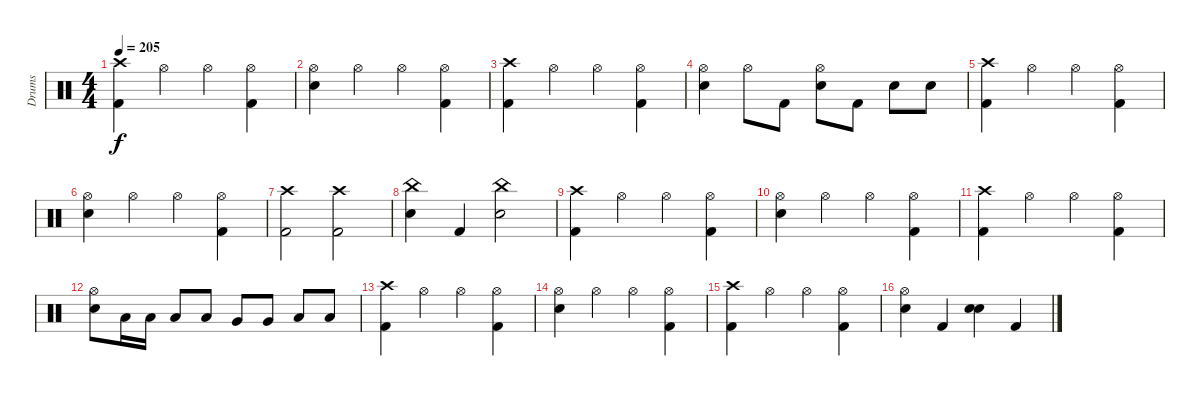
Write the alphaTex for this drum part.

\track ("Drums" "Drums") {instrument percussion}
\staff {score}
\articulation defaults
\ts (4 4)
\tempo 205
\clef neutral
\ks c
("Crash high (hit)" "Kick (hit) 2").4{dy f} "Hi-Hat (open)".4 "Hi-Hat (open)".4 ("Hi-Hat (open)" "Kick (hit) 2").4 |
("Hi-Hat (open)" "Snare (hit) 2").4 "Hi-Hat (open)".4 "Hi-Hat (open)".4 ("Hi-Hat (open)" "Kick (hit) 2").4 |
("Crash high (hit)" "Kick (hit) 2").4 "Hi-Hat (open)".4 "Hi-Hat (open)".4 ("Hi-Hat (open)" "Kick (hit) 2").4 |
("Hi-Hat (open)" "Snare (hit) 2").4 "Hi-Hat (open)".8 "Kick (hit) 2".8 ("Hi-Hat (open)" "Snare (hit) 2").8 "Kick (hit) 2".8 "Snare (hit) 2".8 "Snare (hit) 2".8 |
("Crash high (hit)" "Kick (hit) 2").4 "Hi-Hat (open)".4 "Hi-Hat (open)".4 ("Hi-Hat (open)" "Kick (hit) 2").4 |
("Hi-Hat (open)" "Snare (hit) 2").4 "Hi-Hat (open)".4 "Hi-Hat (open)".4 ("Hi-Hat (open)" "Kick (hit) 2").4 |
("Crash high (hit)" "Kick (hit) 2").2 ("Crash high (hit)" "Kick (hit) 2").2 |
("China (hit)" "Snare (hit) 2").4 "Kick (hit) 2".4 ("China (hit)" "Snare (hit) 2").2 |
("Crash high (hit)" "Kick (hit) 2").4 "Hi-Hat (open)".4 "Hi-Hat (open)".4 ("Hi-Hat (open)" "Kick (hit) 2").4 |
("Hi-Hat (open)" "Snare (hit) 2").4 "Hi-Hat (open)".4 "Hi-Hat (open)".4 ("Hi-Hat (open)" "Kick (hit) 2").4 |
("Crash high (hit)" "Kick (hit) 2").4 "Hi-Hat (open)".4 "Hi-Hat (open)".4 ("Hi-Hat (open)" "Kick (hit) 2").4 |
("Hi-Hat (open)" "Snare (hit) 2").8 "Low Tom (hit)".16 "Low Tom (hit)".16 "Low Tom (hit)".8 "Low Tom (hit)".8 "Very Low Tom (hit)".8 "Very Low Tom (hit)".8 "Low Floor Tom (hit)".8 "Low Floor Tom (hit)".8 |
("Crash high (hit)" "Kick (hit) 2").4 "Hi-Hat (open)".4 "Hi-Hat (open)".4 ("Hi-Hat (open)" "Kick (hit) 2").4 |
("Hi-Hat (open)" "Snare (hit) 2").4 "Hi-Hat (open)".4 "Hi-Hat (open)".4 ("Hi-Hat (open)" "Kick (hit) 2").4 |
("Crash high (hit)" "Kick (hit) 2").4 "Hi-Hat (open)".4 "Hi-Hat (open)".4 ("Hi-Hat (open)" "Kick (hit) 2").4 |
("Hi-Hat (open)" "Snare (hit) 2").4 "Kick (hit) 2".4 ("Snare (hit) 2" "Snare (hit) 2").4 "Kick (hit) 2".4
